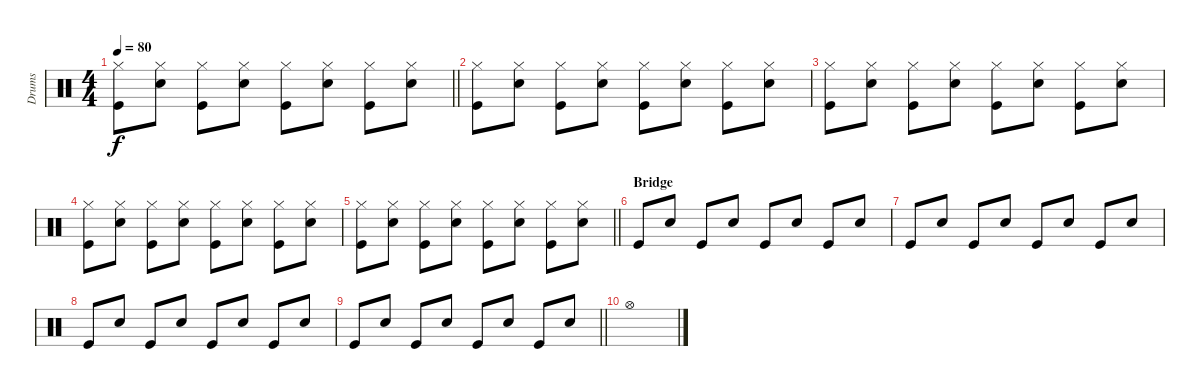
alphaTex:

\track ("Drums" "Drums") {instrument percussion}
\staff {score}
\articulation defaults
\ts (4 4)
\tempo 80
\clef neutral
\barLineRight lightlight
\ks c
("Kick (hit)" "Hi-Hat (closed)").8{dy f} ("Snare (hit) 2" "Hi-Hat (closed)").8 ("Kick (hit)" "Hi-Hat (closed)").8 ("Snare (hit) 2" "Hi-Hat (closed)").8 ("Kick (hit)" "Hi-Hat (closed)").8 ("Snare (hit) 2" "Hi-Hat (closed)").8 ("Kick (hit)" "Hi-Hat (closed)").8 ("Snare (hit) 2" "Hi-Hat (closed)").8 |
("Kick (hit)" "Hi-Hat (closed)").8 ("Snare (hit) 2" "Hi-Hat (closed)").8 ("Kick (hit)" "Hi-Hat (closed)").8 ("Snare (hit) 2" "Hi-Hat (closed)").8 ("Kick (hit)" "Hi-Hat (closed)").8 ("Snare (hit) 2" "Hi-Hat (closed)").8 ("Kick (hit)" "Hi-Hat (closed)").8 ("Snare (hit) 2" "Hi-Hat (closed)").8 |
("Kick (hit)" "Hi-Hat (closed)").8 ("Snare (hit) 2" "Hi-Hat (closed)").8 ("Kick (hit)" "Hi-Hat (closed)").8 ("Snare (hit) 2" "Hi-Hat (closed)").8 ("Kick (hit)" "Hi-Hat (closed)").8 ("Snare (hit) 2" "Hi-Hat (closed)").8 ("Kick (hit)" "Hi-Hat (closed)").8 ("Snare (hit) 2" "Hi-Hat (closed)").8 |
("Kick (hit)" "Hi-Hat (closed)").8 ("Snare (hit) 2" "Hi-Hat (closed)").8 ("Kick (hit)" "Hi-Hat (closed)").8 ("Snare (hit) 2" "Hi-Hat (closed)").8 ("Kick (hit)" "Hi-Hat (closed)").8 ("Snare (hit) 2" "Hi-Hat (closed)").8 ("Kick (hit)" "Hi-Hat (closed)").8 ("Snare (hit) 2" "Hi-Hat (closed)").8 |
\barLineRight lightlight
("Kick (hit)" "Hi-Hat (closed)").8 ("Snare (hit) 2" "Hi-Hat (closed)").8 ("Kick (hit)" "Hi-Hat (closed)").8 ("Snare (hit) 2" "Hi-Hat (closed)").8 ("Kick (hit)" "Hi-Hat (closed)").8 ("Snare (hit) 2" "Hi-Hat (closed)").8 ("Kick (hit)" "Hi-Hat (closed)").8 ("Snare (hit) 2" "Hi-Hat (closed)").8 |
\section ("" "Bridge")
"Kick (hit)".8 "Snare (hit) 2".8 "Kick (hit)".8 "Snare (hit) 2".8 "Kick (hit)".8 "Snare (hit) 2".8 "Kick (hit)".8 "Snare (hit) 2".8 |
"Kick (hit)".8 "Snare (hit) 2".8 "Kick (hit)".8 "Snare (hit) 2".8 "Kick (hit)".8 "Snare (hit) 2".8 "Kick (hit)".8 "Snare (hit) 2".8 |
"Kick (hit)".8 "Snare (hit) 2".8 "Kick (hit)".8 "Snare (hit) 2".8 "Kick (hit)".8 "Snare (hit) 2".8 "Kick (hit)".8 "Snare (hit) 2".8 |
\barLineRight lightlight "Kick (hit)".8 "Snare (hit) 2".8 "Kick (hit)".8 "Snare (hit) 2".8 "Kick (hit)".8 "Snare (hit) 2".8 "Kick (hit)".8 "Snare (hit) 2".8
|
"Hi-Hat (open)".1
